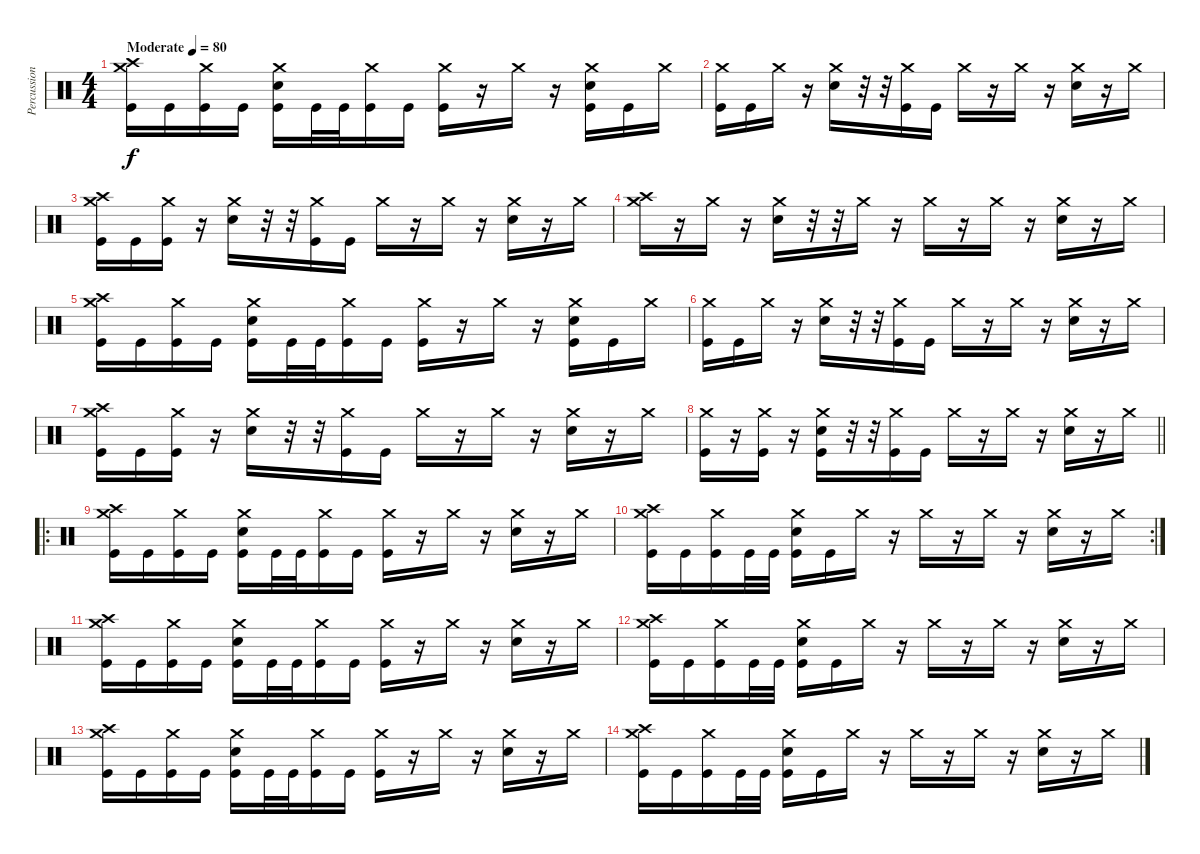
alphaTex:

\track ("Percussion" "Percussion") {instrument percussion}
\staff {score}
\articulation defaults
\ts (4 4)
\tempo (80 "Moderate")
\clef neutral
\ks c
("Crash high (hit)" "Crash medium (hit)" "Kick (hit)").16{dy f} "Kick (hit)".16 ("Crash medium (hit)" "Kick (hit)").16 "Kick (hit)".16 ("Crash medium (hit)" "Electric Snare (hit)" "Kick (hit)").16 "Kick (hit)".32 "Kick (hit)".32 ("Crash medium (hit)" "Kick (hit)").16 "Kick (hit)".16 ("Crash medium (hit)" "Kick (hit)").16 r.16 "Crash medium (hit)".16 r.16 ("Crash medium (hit)" "Electric Snare (hit)" "Kick (hit)").16 "Kick (hit)".16 "Crash medium (hit)".16 |
("Crash medium (hit)" "Kick (hit)").16 "Kick (hit)".16 "Crash medium (hit)".16 r.16 ("Crash medium (hit)" "Electric Snare (hit)").16 r.32 r.32 ("Crash medium (hit)" "Kick (hit)").16 "Kick (hit)".16 "Crash medium (hit)".16 r.16 "Crash medium (hit)".16 r.16 ("Crash medium (hit)" "Electric Snare (hit)").16 r.16 "Crash medium (hit)".16 |
("Crash high (hit)" "Crash medium (hit)" "Kick (hit)").16 "Kick (hit)".16 ("Crash medium (hit)" "Kick (hit)").16 r.16 ("Crash medium (hit)" "Electric Snare (hit)").16 r.32 r.32 ("Crash medium (hit)" "Kick (hit)").16 "Kick (hit)".16 "Crash medium (hit)".16 r.16 "Crash medium (hit)".16 r.16 ("Crash medium (hit)" "Electric Snare (hit)").16 r.16 "Crash medium (hit)".16 |
("Crash high (hit)" "Crash medium (hit)").16 r.16 "Crash medium (hit)".16 r.16 ("Crash medium (hit)" "Electric Snare (hit)").16 r.32 r.32 "Crash medium (hit)".16 r.16 "Crash medium (hit)".16 r.16 "Crash medium (hit)".16 r.16 ("Crash medium (hit)" "Electric Snare (hit)").16 r.16 "Crash medium (hit)".16 |
("Crash high (hit)" "Crash medium (hit)" "Kick (hit)").16 "Kick (hit)".16 ("Crash medium (hit)" "Kick (hit)").16 "Kick (hit)".16 ("Crash medium (hit)" "Electric Snare (hit)" "Kick (hit)").16 "Kick (hit)".32 "Kick (hit)".32 ("Crash medium (hit)" "Kick (hit)").16 "Kick (hit)".16 ("Crash medium (hit)" "Kick (hit)").16 r.16 "Crash medium (hit)".16 r.16 ("Crash medium (hit)" "Electric Snare (hit)" "Kick (hit)").16 "Kick (hit)".16 "Crash medium (hit)".16 |
("Crash medium (hit)" "Kick (hit)").16 "Kick (hit)".16 "Crash medium (hit)".16 r.16 ("Crash medium (hit)" "Electric Snare (hit)").16 r.32 r.32 ("Crash medium (hit)" "Kick (hit)").16 "Kick (hit)".16 "Crash medium (hit)".16 r.16 "Crash medium (hit)".16 r.16 ("Crash medium (hit)" "Electric Snare (hit)").16 r.16 "Crash medium (hit)".16 |
("Crash high (hit)" "Crash medium (hit)" "Kick (hit)").16 "Kick (hit)".16 ("Crash medium (hit)" "Kick (hit)").16 r.16 ("Crash medium (hit)" "Electric Snare (hit)").16 r.32 r.32 ("Crash medium (hit)" "Kick (hit)").16 "Kick (hit)".16 "Crash medium (hit)".16 r.16 "Crash medium (hit)".16 r.16 ("Crash medium (hit)" "Electric Snare (hit)").16 r.16 "Crash medium (hit)".16 |
\barLineRight lightlight
("Crash medium (hit)" "Kick (hit)").16 r.16 ("Crash medium (hit)" "Kick (hit)").16 r.16 ("Crash medium (hit)" "Electric Snare (hit)" "Kick (hit)").16 r.32 r.32 ("Crash medium (hit)" "Kick (hit)").16 "Kick (hit)".16 "Crash medium (hit)".16 r.16 "Crash medium (hit)".16 r.16 ("Crash medium (hit)" "Electric Snare (hit)").16 r.16 "Crash medium (hit)".16 |
\ro
("Crash high (hit)" "Crash medium (hit)" "Kick (hit)").16 "Kick (hit)".16 ("Crash medium (hit)" "Kick (hit)").16 "Kick (hit)".16 ("Crash medium (hit)" "Electric Snare (hit)" "Kick (hit)").16 "Kick (hit)".32 "Kick (hit)".32 ("Crash medium (hit)" "Kick (hit)").16 "Kick (hit)".16 ("Crash medium (hit)" "Kick (hit)").16 r.16 "Crash medium (hit)".16 r.16 ("Crash medium (hit)" "Electric Snare (hit)").16 r.16 "Crash medium (hit)".16 |
\rc 2
("Crash high (hit)" "Crash medium (hit)" "Kick (hit)").16 "Kick (hit)".16 ("Crash medium (hit)" "Kick (hit)").16 "Kick (hit)".32 "Kick (hit)".32 ("Crash medium (hit)" "Electric Snare (hit)" "Kick (hit)").16 "Kick (hit)".16 "Crash medium (hit)".16 r.16 "Crash medium (hit)".16 r.16 "Crash medium (hit)".16 r.16 ("Crash medium (hit)" "Electric Snare (hit)").16 r.16 "Crash medium (hit)".16 |
("Crash high (hit)" "Crash medium (hit)" "Kick (hit)").16{volume 4} "Kick (hit)".16 ("Crash medium (hit)" "Kick (hit)").16 "Kick (hit)".16 ("Crash medium (hit)" "Electric Snare (hit)" "Kick (hit)").16 "Kick (hit)".32 "Kick (hit)".32 ("Crash medium (hit)" "Kick (hit)").16 "Kick (hit)".16 ("Crash medium (hit)" "Kick (hit)").16 r.16 "Crash medium (hit)".16 r.16 ("Crash medium (hit)" "Electric Snare (hit)").16 r.16 "Crash medium (hit)".16 |
("Crash high (hit)" "Crash medium (hit)" "Kick (hit)").16 "Kick (hit)".16 ("Crash medium (hit)" "Kick (hit)").16 "Kick (hit)".32 "Kick (hit)".32 ("Crash medium (hit)" "Electric Snare (hit)" "Kick (hit)").16 "Kick (hit)".16 "Crash medium (hit)".16 r.16 "Crash medium (hit)".16 r.16 "Crash medium (hit)".16 r.16 ("Crash medium (hit)" "Electric Snare (hit)").16 r.16 "Crash medium (hit)".16 |
("Crash high (hit)" "Crash medium (hit)" "Kick (hit)").16 "Kick (hit)".16 ("Crash medium (hit)" "Kick (hit)").16 "Kick (hit)".16 ("Crash medium (hit)" "Electric Snare (hit)" "Kick (hit)").16 "Kick (hit)".32 "Kick (hit)".32 ("Crash medium (hit)" "Kick (hit)").16 "Kick (hit)".16 ("Crash medium (hit)" "Kick (hit)").16 r.16 "Crash medium (hit)".16 r.16 ("Crash medium (hit)" "Electric Snare (hit)").16 r.16 "Crash medium (hit)".16 |
("Crash high (hit)" "Crash medium (hit)" "Kick (hit)").16 "Kick (hit)".16 ("Crash medium (hit)" "Kick (hit)").16 "Kick (hit)".32 "Kick (hit)".32 ("Crash medium (hit)" "Electric Snare (hit)" "Kick (hit)").16 "Kick (hit)".16 "Crash medium (hit)".16 r.16 "Crash medium (hit)".16 r.16 "Crash medium (hit)".16 r.16 ("Crash medium (hit)" "Electric Snare (hit)").16 r.16 "Crash medium (hit)".16
